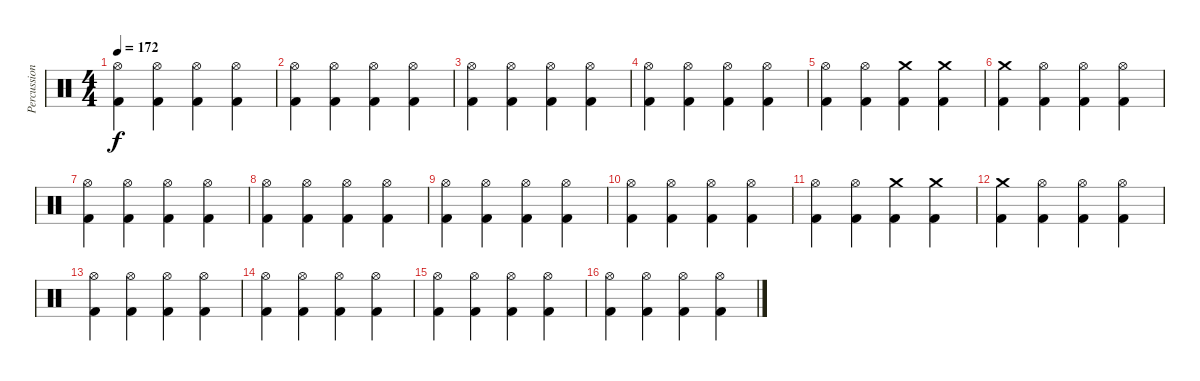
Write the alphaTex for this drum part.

\track ("Percussion" "Percussion") {instrument percussion}
\staff {score}
\articulation defaults
\ts (4 4)
\tempo 172
\clef neutral
\ks c
("Hi-Hat (open)" "Kick (hit) 2").4{dy f} ("Hi-Hat (open)" "Kick (hit) 2").4 ("Hi-Hat (open)" "Kick (hit) 2").4 ("Hi-Hat (open)" "Kick (hit) 2").4 |
("Hi-Hat (open)" "Kick (hit) 2").4 ("Hi-Hat (open)" "Kick (hit) 2").4 ("Hi-Hat (open)" "Kick (hit) 2").4 ("Hi-Hat (open)" "Kick (hit) 2").4 |
("Hi-Hat (open)" "Kick (hit) 2").4 ("Hi-Hat (open)" "Kick (hit) 2").4 ("Hi-Hat (open)" "Kick (hit) 2").4 ("Hi-Hat (open)" "Kick (hit) 2").4 |
("Hi-Hat (open)" "Kick (hit) 2").4 ("Hi-Hat (open)" "Kick (hit) 2").4 ("Hi-Hat (open)" "Kick (hit) 2").4 ("Hi-Hat (open)" "Kick (hit) 2").4 |
("Hi-Hat (open)" "Kick (hit) 2").4 ("Hi-Hat (open)" "Kick (hit) 2").4 ("Crash medium (hit)" "Kick (hit) 2").4 ("Crash medium (hit)" "Kick (hit) 2").4 |
("Crash medium (hit)" "Kick (hit) 2").4 ("Hi-Hat (open)" "Kick (hit) 2").4 ("Hi-Hat (open)" "Kick (hit) 2").4 ("Hi-Hat (open)" "Kick (hit) 2").4 |
("Hi-Hat (open)" "Kick (hit) 2").4 ("Hi-Hat (open)" "Kick (hit) 2").4 ("Hi-Hat (open)" "Kick (hit) 2").4 ("Hi-Hat (open)" "Kick (hit) 2").4 |
("Hi-Hat (open)" "Kick (hit) 2").4 ("Hi-Hat (open)" "Kick (hit) 2").4 ("Hi-Hat (open)" "Kick (hit) 2").4 ("Hi-Hat (open)" "Kick (hit) 2").4 |
("Hi-Hat (open)" "Kick (hit) 2").4 ("Hi-Hat (open)" "Kick (hit) 2").4 ("Hi-Hat (open)" "Kick (hit) 2").4 ("Hi-Hat (open)" "Kick (hit) 2").4 |
("Hi-Hat (open)" "Kick (hit) 2").4 ("Hi-Hat (open)" "Kick (hit) 2").4 ("Hi-Hat (open)" "Kick (hit) 2").4 ("Hi-Hat (open)" "Kick (hit) 2").4 |
("Hi-Hat (open)" "Kick (hit) 2").4 ("Hi-Hat (open)" "Kick (hit) 2").4 ("Crash medium (hit)" "Kick (hit) 2").4 ("Crash medium (hit)" "Kick (hit) 2").4 |
("Crash medium (hit)" "Kick (hit) 2").4 ("Hi-Hat (open)" "Kick (hit) 2").4 ("Hi-Hat (open)" "Kick (hit) 2").4 ("Hi-Hat (open)" "Kick (hit) 2").4 |
("Hi-Hat (open)" "Kick (hit) 2").4 ("Hi-Hat (open)" "Kick (hit) 2").4 ("Hi-Hat (open)" "Kick (hit) 2").4 ("Hi-Hat (open)" "Kick (hit) 2").4 |
("Hi-Hat (open)" "Kick (hit) 2").4 ("Hi-Hat (open)" "Kick (hit) 2").4 ("Hi-Hat (open)" "Kick (hit) 2").4 ("Hi-Hat (open)" "Kick (hit) 2").4 |
("Hi-Hat (open)" "Kick (hit) 2").4 ("Hi-Hat (open)" "Kick (hit) 2").4 ("Hi-Hat (open)" "Kick (hit) 2").4 ("Hi-Hat (open)" "Kick (hit) 2").4 |
("Hi-Hat (open)" "Kick (hit) 2").4 ("Hi-Hat (open)" "Kick (hit) 2").4 ("Hi-Hat (open)" "Kick (hit) 2").4 ("Hi-Hat (open)" "Kick (hit) 2").4
